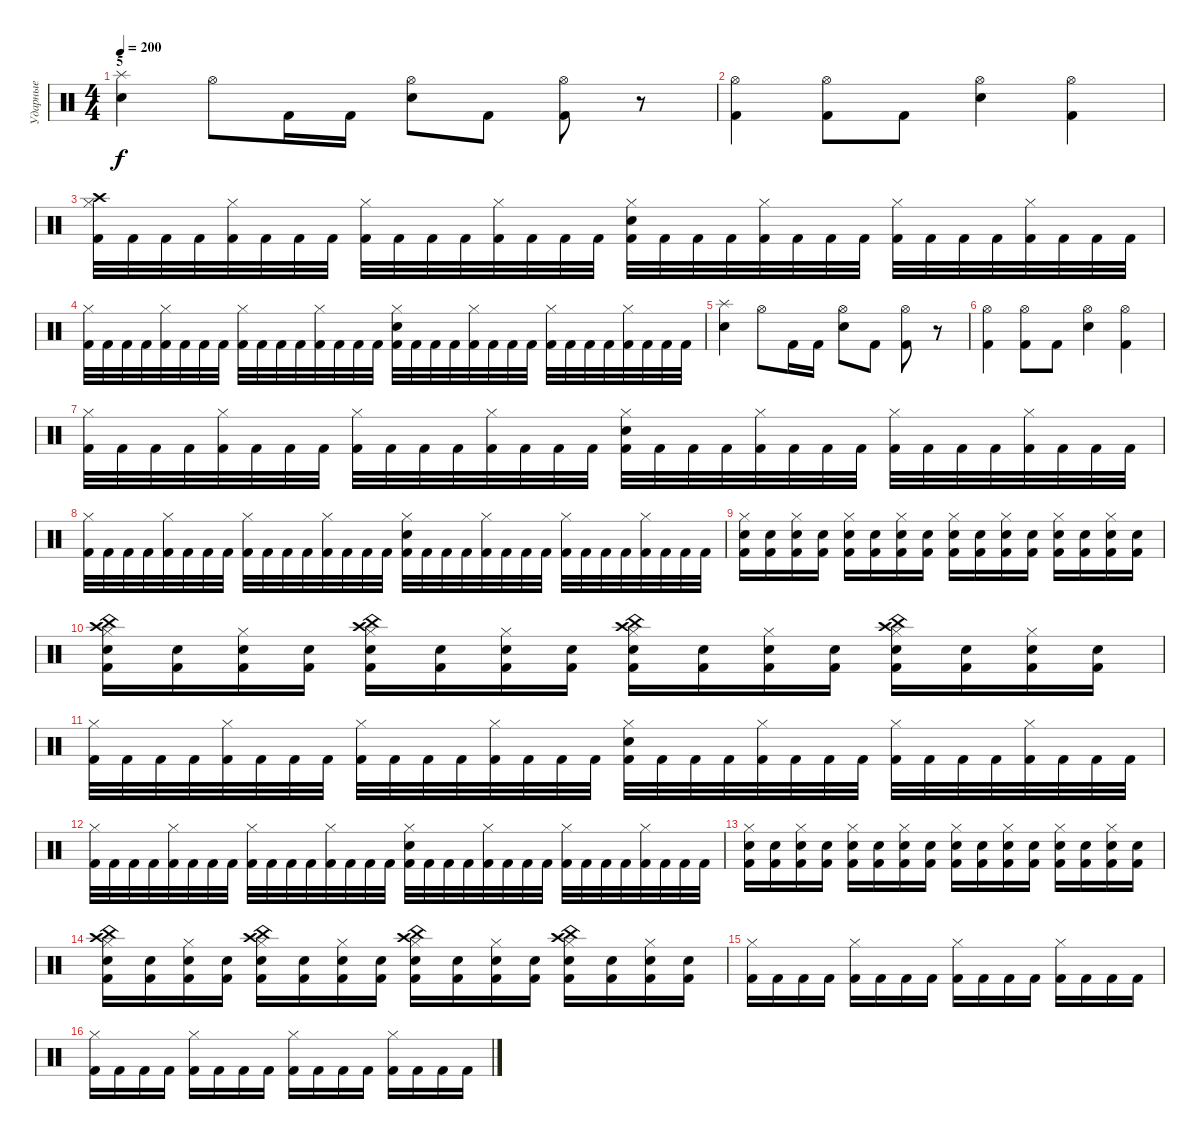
\track ("Ударные" "Ударные") {instrument percussion}
\staff {score}
\articulation defaults
\ts (4 4)
\section ("" "5")
\tempo 200
\clef neutral
\ks c
("Splash (hit)" "Electric Snare (hit)").4{dy f} "Hi-Hat (open)".8 "Kick (hit) 2".16 "Kick (hit) 2".16 ("Hi-Hat (open)" "Electric Snare (hit)").8 "Kick (hit) 2".8 ("Hi-Hat (open)" "Kick (hit) 2").8 r.8 |
("Hi-Hat (open)" "Kick (hit) 2").4 ("Hi-Hat (open)" "Kick (hit) 2").8 "Kick (hit) 2".8 ("Hi-Hat (open)" "Electric Snare (hit)").4 ("Hi-Hat (open)" "Kick (hit) 2").4 |
("Hi-Hat (closed)" "Crash high (hit)" "Kick (hit) 2").32 "Kick (hit) 2".32 "Kick (hit) 2".32 "Kick (hit) 2".32 ("Hi-Hat (closed)" "Kick (hit) 2").32 "Kick (hit) 2".32 "Kick (hit) 2".32 "Kick (hit) 2".32 ("Hi-Hat (closed)" "Kick (hit) 2").32 "Kick (hit) 2".32 "Kick (hit) 2".32 "Kick (hit) 2".32 ("Hi-Hat (closed)" "Kick (hit) 2").32 "Kick (hit) 2".32 "Kick (hit) 2".32 "Kick (hit) 2".32 ("Hi-Hat (closed)" "Electric Snare (hit)" "Kick (hit) 2").32 "Kick (hit) 2".32 "Kick (hit) 2".32 "Kick (hit) 2".32 ("Hi-Hat (closed)" "Kick (hit) 2").32 "Kick (hit) 2".32 "Kick (hit) 2".32 "Kick (hit) 2".32 ("Hi-Hat (closed)" "Kick (hit) 2").32 "Kick (hit) 2".32 "Kick (hit) 2".32 "Kick (hit) 2".32 ("Hi-Hat (closed)" "Kick (hit) 2").32 "Kick (hit) 2".32 "Kick (hit) 2".32 "Kick (hit) 2".32 |
("Hi-Hat (closed)" "Kick (hit) 2").32 "Kick (hit) 2".32 "Kick (hit) 2".32 "Kick (hit) 2".32 ("Hi-Hat (closed)" "Kick (hit) 2").32 "Kick (hit) 2".32 "Kick (hit) 2".32 "Kick (hit) 2".32 ("Hi-Hat (closed)" "Kick (hit) 2").32 "Kick (hit) 2".32 "Kick (hit) 2".32 "Kick (hit) 2".32 ("Hi-Hat (closed)" "Kick (hit) 2").32 "Kick (hit) 2".32 "Kick (hit) 2".32 "Kick (hit) 2".32 ("Hi-Hat (closed)" "Electric Snare (hit)" "Kick (hit) 2").32 "Kick (hit) 2".32 "Kick (hit) 2".32 "Kick (hit) 2".32 ("Hi-Hat (closed)" "Kick (hit) 2").32 "Kick (hit) 2".32 "Kick (hit) 2".32 "Kick (hit) 2".32 ("Hi-Hat (closed)" "Kick (hit) 2").32 "Kick (hit) 2".32 "Kick (hit) 2".32 "Kick (hit) 2".32 ("Hi-Hat (closed)" "Kick (hit) 2").32 "Kick (hit) 2".32 "Kick (hit) 2".32 "Kick (hit) 2".32 |
("Splash (hit)" "Electric Snare (hit)").4 "Hi-Hat (open)".8 "Kick (hit) 2".16 "Kick (hit) 2".16 ("Hi-Hat (open)" "Electric Snare (hit)").8 "Kick (hit) 2".8 ("Hi-Hat (open)" "Kick (hit) 2").8 r.8 |
("Hi-Hat (open)" "Kick (hit) 2").4 ("Hi-Hat (open)" "Kick (hit) 2").8 "Kick (hit) 2".8 ("Hi-Hat (open)" "Electric Snare (hit)").4 ("Hi-Hat (open)" "Kick (hit) 2").4 |
("Hi-Hat (closed)" "Kick (hit) 2").32 "Kick (hit) 2".32 "Kick (hit) 2".32 "Kick (hit) 2".32 ("Hi-Hat (closed)" "Kick (hit) 2").32 "Kick (hit) 2".32 "Kick (hit) 2".32 "Kick (hit) 2".32 ("Hi-Hat (closed)" "Kick (hit) 2").32 "Kick (hit) 2".32 "Kick (hit) 2".32 "Kick (hit) 2".32 ("Hi-Hat (closed)" "Kick (hit) 2").32 "Kick (hit) 2".32 "Kick (hit) 2".32 "Kick (hit) 2".32 ("Hi-Hat (closed)" "Electric Snare (hit)" "Kick (hit) 2").32 "Kick (hit) 2".32 "Kick (hit) 2".32 "Kick (hit) 2".32 ("Hi-Hat (closed)" "Kick (hit) 2").32 "Kick (hit) 2".32 "Kick (hit) 2".32 "Kick (hit) 2".32 ("Hi-Hat (closed)" "Kick (hit) 2").32 "Kick (hit) 2".32 "Kick (hit) 2".32 "Kick (hit) 2".32 ("Hi-Hat (closed)" "Kick (hit) 2").32 "Kick (hit) 2".32 "Kick (hit) 2".32 "Kick (hit) 2".32 |
("Hi-Hat (closed)" "Kick (hit) 2").32 "Kick (hit) 2".32 "Kick (hit) 2".32 "Kick (hit) 2".32 ("Hi-Hat (closed)" "Kick (hit) 2").32 "Kick (hit) 2".32 "Kick (hit) 2".32 "Kick (hit) 2".32 ("Hi-Hat (closed)" "Kick (hit) 2").32 "Kick (hit) 2".32 "Kick (hit) 2".32 "Kick (hit) 2".32 ("Hi-Hat (closed)" "Kick (hit) 2").32 "Kick (hit) 2".32 "Kick (hit) 2".32 "Kick (hit) 2".32 ("Hi-Hat (closed)" "Electric Snare (hit)" "Kick (hit) 2").32 "Kick (hit) 2".32 "Kick (hit) 2".32 "Kick (hit) 2".32 ("Hi-Hat (closed)" "Kick (hit) 2").32 "Kick (hit) 2".32 "Kick (hit) 2".32 "Kick (hit) 2".32 ("Hi-Hat (closed)" "Kick (hit) 2").32 "Kick (hit) 2".32 "Kick (hit) 2".32 "Kick (hit) 2".32 ("Hi-Hat (closed)" "Kick (hit) 2").32 "Kick (hit) 2".32 "Kick (hit) 2".32 "Kick (hit) 2".32 |
("Hi-Hat (closed)" "Electric Snare (hit)" "Kick (hit) 2").16 ("Electric Snare (hit)" "Kick (hit) 2").16 ("Hi-Hat (closed)" "Electric Snare (hit)" "Kick (hit) 2").16 ("Electric Snare (hit)" "Kick (hit) 2").16 ("Hi-Hat (closed)" "Electric Snare (hit)" "Kick (hit) 2").16 ("Electric Snare (hit)" "Kick (hit) 2").16 ("Hi-Hat (closed)" "Electric Snare (hit)" "Kick (hit) 2").16 ("Electric Snare (hit)" "Kick (hit) 2").16 ("Hi-Hat (closed)" "Electric Snare (hit)" "Kick (hit) 2").16 ("Electric Snare (hit)" "Kick (hit) 2").16 ("Hi-Hat (closed)" "Electric Snare (hit)" "Kick (hit) 2").16 ("Electric Snare (hit)" "Kick (hit) 2").16 ("Hi-Hat (closed)" "Electric Snare (hit)" "Kick (hit) 2").16 ("Electric Snare (hit)" "Kick (hit) 2").16 ("Hi-Hat (closed)" "Electric Snare (hit)" "Kick (hit) 2").16 ("Electric Snare (hit)" "Kick (hit) 2").16 |
("Hi-Hat (closed)" "Crash high (hit)" "Electric Snare (hit)" "China (hit)" "Kick (hit) 2").16 ("Electric Snare (hit)" "Kick (hit) 2").16 ("Hi-Hat (closed)" "Electric Snare (hit)" "Kick (hit) 2").16 ("Electric Snare (hit)" "Kick (hit) 2").16 ("Hi-Hat (closed)" "Crash high (hit)" "Electric Snare (hit)" "China (hit)" "Kick (hit) 2").16 ("Electric Snare (hit)" "Kick (hit) 2").16 ("Hi-Hat (closed)" "Electric Snare (hit)" "Kick (hit) 2").16 ("Electric Snare (hit)" "Kick (hit) 2").16 ("Hi-Hat (closed)" "Crash high (hit)" "Electric Snare (hit)" "China (hit)" "Kick (hit) 2").16 ("Electric Snare (hit)" "Kick (hit) 2").16 ("Hi-Hat (closed)" "Electric Snare (hit)" "Kick (hit) 2").16 ("Electric Snare (hit)" "Kick (hit) 2").16 ("Hi-Hat (closed)" "Crash high (hit)" "Electric Snare (hit)" "China (hit)" "Kick (hit) 2").16 ("Electric Snare (hit)" "Kick (hit) 2").16 ("Hi-Hat (closed)" "Electric Snare (hit)" "Kick (hit) 2").16 ("Electric Snare (hit)" "Kick (hit) 2").16 |
("Hi-Hat (closed)" "Kick (hit) 2").32 "Kick (hit) 2".32 "Kick (hit) 2".32 "Kick (hit) 2".32 ("Hi-Hat (closed)" "Kick (hit) 2").32 "Kick (hit) 2".32 "Kick (hit) 2".32 "Kick (hit) 2".32 ("Hi-Hat (closed)" "Kick (hit) 2").32 "Kick (hit) 2".32 "Kick (hit) 2".32 "Kick (hit) 2".32 ("Hi-Hat (closed)" "Kick (hit) 2").32 "Kick (hit) 2".32 "Kick (hit) 2".32 "Kick (hit) 2".32 ("Hi-Hat (closed)" "Electric Snare (hit)" "Kick (hit) 2").32 "Kick (hit) 2".32 "Kick (hit) 2".32 "Kick (hit) 2".32 ("Hi-Hat (closed)" "Kick (hit) 2").32 "Kick (hit) 2".32 "Kick (hit) 2".32 "Kick (hit) 2".32 ("Hi-Hat (closed)" "Kick (hit) 2").32 "Kick (hit) 2".32 "Kick (hit) 2".32 "Kick (hit) 2".32 ("Hi-Hat (closed)" "Kick (hit) 2").32 "Kick (hit) 2".32 "Kick (hit) 2".32 "Kick (hit) 2".32 |
("Hi-Hat (closed)" "Kick (hit) 2").32 "Kick (hit) 2".32 "Kick (hit) 2".32 "Kick (hit) 2".32 ("Hi-Hat (closed)" "Kick (hit) 2").32 "Kick (hit) 2".32 "Kick (hit) 2".32 "Kick (hit) 2".32 ("Hi-Hat (closed)" "Kick (hit) 2").32 "Kick (hit) 2".32 "Kick (hit) 2".32 "Kick (hit) 2".32 ("Hi-Hat (closed)" "Kick (hit) 2").32 "Kick (hit) 2".32 "Kick (hit) 2".32 "Kick (hit) 2".32 ("Hi-Hat (closed)" "Electric Snare (hit)" "Kick (hit) 2").32 "Kick (hit) 2".32 "Kick (hit) 2".32 "Kick (hit) 2".32 ("Hi-Hat (closed)" "Kick (hit) 2").32 "Kick (hit) 2".32 "Kick (hit) 2".32 "Kick (hit) 2".32 ("Hi-Hat (closed)" "Kick (hit) 2").32 "Kick (hit) 2".32 "Kick (hit) 2".32 "Kick (hit) 2".32 ("Hi-Hat (closed)" "Kick (hit) 2").32 "Kick (hit) 2".32 "Kick (hit) 2".32 "Kick (hit) 2".32 |
("Hi-Hat (closed)" "Electric Snare (hit)" "Kick (hit) 2").16 ("Electric Snare (hit)" "Kick (hit) 2").16 ("Hi-Hat (closed)" "Electric Snare (hit)" "Kick (hit) 2").16 ("Electric Snare (hit)" "Kick (hit) 2").16 ("Hi-Hat (closed)" "Electric Snare (hit)" "Kick (hit) 2").16 ("Electric Snare (hit)" "Kick (hit) 2").16 ("Hi-Hat (closed)" "Electric Snare (hit)" "Kick (hit) 2").16 ("Electric Snare (hit)" "Kick (hit) 2").16 ("Hi-Hat (closed)" "Electric Snare (hit)" "Kick (hit) 2").16 ("Electric Snare (hit)" "Kick (hit) 2").16 ("Hi-Hat (closed)" "Electric Snare (hit)" "Kick (hit) 2").16 ("Electric Snare (hit)" "Kick (hit) 2").16 ("Hi-Hat (closed)" "Electric Snare (hit)" "Kick (hit) 2").16 ("Electric Snare (hit)" "Kick (hit) 2").16 ("Hi-Hat (closed)" "Electric Snare (hit)" "Kick (hit) 2").16 ("Electric Snare (hit)" "Kick (hit) 2").16 |
("Hi-Hat (closed)" "Crash high (hit)" "Electric Snare (hit)" "China (hit)" "Kick (hit) 2").16 ("Electric Snare (hit)" "Kick (hit) 2").16 ("Hi-Hat (closed)" "Electric Snare (hit)" "Kick (hit) 2").16 ("Electric Snare (hit)" "Kick (hit) 2").16 ("Hi-Hat (closed)" "Crash high (hit)" "Electric Snare (hit)" "China (hit)" "Kick (hit) 2").16 ("Electric Snare (hit)" "Kick (hit) 2").16 ("Hi-Hat (closed)" "Electric Snare (hit)" "Kick (hit) 2").16 ("Electric Snare (hit)" "Kick (hit) 2").16 ("Hi-Hat (closed)" "Crash high (hit)" "Electric Snare (hit)" "China (hit)" "Kick (hit) 2").16 ("Electric Snare (hit)" "Kick (hit) 2").16 ("Hi-Hat (closed)" "Electric Snare (hit)" "Kick (hit) 2").16 ("Electric Snare (hit)" "Kick (hit) 2").16 ("Hi-Hat (closed)" "Crash high (hit)" "Electric Snare (hit)" "China (hit)" "Kick (hit) 2").16 ("Electric Snare (hit)" "Kick (hit) 2").16 ("Hi-Hat (closed)" "Electric Snare (hit)" "Kick (hit) 2").16 ("Electric Snare (hit)" "Kick (hit) 2").16 |
("Hi-Hat (closed)" "Kick (hit) 2").16 "Kick (hit) 2".16 "Kick (hit) 2".16 "Kick (hit) 2".16 ("Hi-Hat (closed)" "Kick (hit) 2").16 "Kick (hit) 2".16 "Kick (hit) 2".16 "Kick (hit) 2".16 ("Hi-Hat (closed)" "Kick (hit) 2").16 "Kick (hit) 2".16 "Kick (hit) 2".16 "Kick (hit) 2".16 ("Hi-Hat (closed)" "Kick (hit) 2").16 "Kick (hit) 2".16 "Kick (hit) 2".16 "Kick (hit) 2".16 |
("Hi-Hat (closed)" "Kick (hit) 2").16 "Kick (hit) 2".16 "Kick (hit) 2".16 "Kick (hit) 2".16 ("Hi-Hat (closed)" "Kick (hit) 2").16 "Kick (hit) 2".16 "Kick (hit) 2".16 "Kick (hit) 2".16 ("Hi-Hat (closed)" "Kick (hit) 2").16 "Kick (hit) 2".16 "Kick (hit) 2".16 "Kick (hit) 2".16 ("Hi-Hat (closed)" "Kick (hit) 2").16 "Kick (hit) 2".16 "Kick (hit) 2".16 "Kick (hit) 2".16
